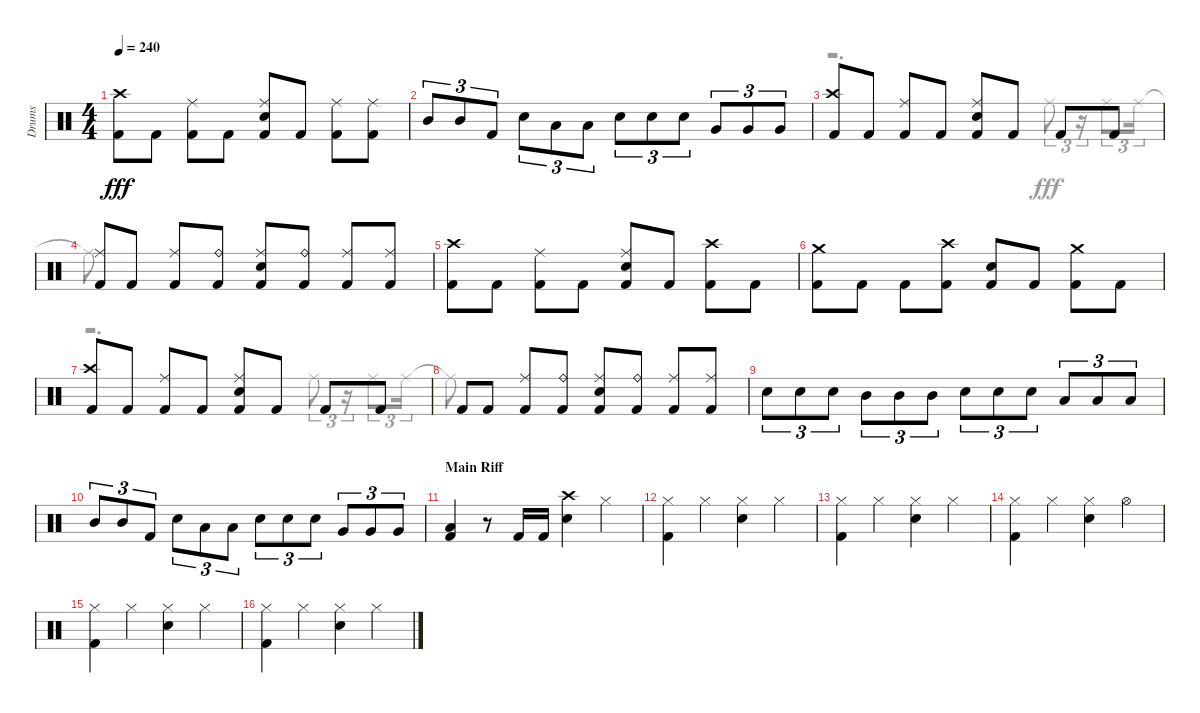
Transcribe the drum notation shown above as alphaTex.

\track ("Drums" "Drums") {instrument percussion}
\staff {score}
\articulation defaults
\voice
\ts (4 4)
\tempo 240
\clef neutral
\ks aminor
("Crash high (hit)" "Kick (hit) 2").8{dy fff} "Kick (hit) 2".8 ("Ride (middle)" "Kick (hit) 2").8 "Kick (hit) 2".8 ("Ride (middle)" "Snare (hit) 2" "Kick (hit) 2").8 "Kick (hit) 2".8 ("Kick (hit) 2" "Ride (middle)").8 ("Kick (hit) 2" "Ride (middle)").8 |
"Mid Tom (hit)".8{tu (3 2)} "Mid Tom (hit)".8{tu (3 2)} "Kick (hit) 2".8{tu (3 2)} "Snare (hit) 2".8{tu (3 2)} "Low Tom (hit)".8{tu (3 2)} "Low Tom (hit)".8{tu (3 2)} "Snare (hit) 2".8{tu (3 2)} "Snare (hit) 2".8{tu (3 2)} "Snare (hit) 2".8{tu (3 2)} "Very Low Tom (hit)".8{tu (3 2)} "Very Low Tom (hit)".8{tu (3 2)} "Very Low Tom (hit)".8{tu (3 2)} |
("Crash high (hit)" "Kick (hit) 2").8 "Kick (hit) 2".8 ("Ride (middle)" "Kick (hit) 2").8 "Kick (hit) 2".8 ("Ride (middle)" "Kick (hit) 2" "Snare (hit) 2").8 "Kick (hit) 2".8 "Kick (hit) 2".8 "Kick (hit) 2".8 |
("Kick (hit) 2" "Ride (middle)").8 "Kick (hit) 2".8 ("Kick (hit) 2" "Ride (middle)").8 ("Ride (bell)" "Kick (hit) 2").8 ("Ride (middle)" "Snare (hit) 2" "Kick (hit) 2").8 ("Kick (hit) 2" "Ride (bell)").8 ("Kick (hit) 2" "Ride (middle)").8 ("Kick (hit) 2" "Ride (middle)").8 |
("Crash high (hit)" "Kick (hit) 2").8 "Kick (hit) 2".8 ("Ride (middle)" "Kick (hit) 2").8 "Kick (hit) 2".8 ("Kick (hit) 2" "Ride (middle)" "Snare (hit) 2").8 "Kick (hit) 2".8 ("Kick (hit) 2" "Crash high (hit)").8 "Kick (hit) 2".8 |
("Kick (hit) 2" "Crash medium (hit)").8 "Kick (hit) 2".8 "Kick (hit) 2".8 ("Kick (hit) 2" "Crash high (hit)").8 ("Snare (hit) 2" "Kick (hit) 2").8 "Kick (hit) 2".8 ("Crash medium (hit)" "Kick (hit) 2").8 "Kick (hit) 2".8 |
("Crash high (hit)" "Kick (hit) 2").8 "Kick (hit) 2".8 ("Ride (middle)" "Kick (hit) 2").8 "Kick (hit) 2".8 ("Snare (hit) 2" "Ride (middle)" "Kick (hit) 2").8 "Kick (hit) 2".8 "Kick (hit) 2".8 "Kick (hit) 2".8 |
"Kick (hit) 2".8 "Kick (hit) 2".8 ("Ride (middle)" "Kick (hit) 2").8 ("Ride (bell)" "Kick (hit) 2").8 ("Kick (hit) 2" "Snare (hit) 2" "Ride (middle)").8 ("Kick (hit) 2" "Ride (bell)").8 ("Ride (middle)" "Kick (hit) 2").8 ("Ride (middle)" "Kick (hit) 2").8 |
"Snare (hit) 2".8{tu (3 2)} "Snare (hit) 2".8{tu (3 2)} "Snare (hit) 2".8{tu (3 2)} "Mid Tom (hit)".8{tu (3 2)} "Mid Tom (hit)".8{tu (3 2)} "Mid Tom (hit)".8{tu (3 2)} "Snare (hit) 2".8{tu (3 2)} "Snare (hit) 2".8{tu (3 2)} "Snare (hit) 2".8{tu (3 2)} "Low Tom (hit)".8{tu (3 2)} "Low Tom (hit)".8{tu (3 2)} "Low Tom (hit)".8{tu (3 2)} |
"Mid Tom (hit)".8{tu (3 2)} "Mid Tom (hit)".8{tu (3 2)} "Kick (hit) 2".8{tu (3 2)} "Snare (hit) 2".8{tu (3 2)} "Low Tom (hit)".8{tu (3 2)} "Low Tom (hit)".8{tu (3 2)} "Snare (hit) 2".8{tu (3 2)} "Snare (hit) 2".8{tu (3 2)} "Snare (hit) 2".8{tu (3 2)} "Very Low Tom (hit)".8{tu (3 2)} "Very Low Tom (hit)".8{tu (3 2)} "Very Low Tom (hit)".8{tu (3 2)} |
\section ("" "Main Riff")
("Kick (hit) 2" "Low Floor Tom (hit)").4 r.8 "Kick (hit) 2".16 "Kick (hit) 2".16 ("Crash high (hit)" "Snare (hit) 2").4 "Hi-Hat (closed)".4 |
("Kick (hit) 2" "Hi-Hat (closed)").4 "Hi-Hat (closed)".4 ("Hi-Hat (closed)" "Snare (hit) 2").4 "Hi-Hat (closed)".4 |
("Kick (hit) 2" "Hi-Hat (closed)").4 "Hi-Hat (closed)".4 ("Snare (hit) 2" "Hi-Hat (closed)").4 "Hi-Hat (closed)".4 |
("Hi-Hat (closed)" "Kick (hit) 2").4 "Hi-Hat (closed)".4 ("Hi-Hat (closed)" "Snare (hit) 2").4 "Hi-Hat (open)".4 |
("Kick (hit) 2" "Hi-Hat (closed)").4 "Hi-Hat (closed)".4 ("Hi-Hat (closed)" "Snare (hit) 2").4 "Hi-Hat (closed)".4 |
("Hi-Hat (closed)" "Kick (hit) 2").4 "Hi-Hat (closed)".4 ("Snare (hit) 2" "Hi-Hat (closed)").4 "Hi-Hat (closed)".4
\voice
\clef neutral
\ottava regular
\simile none
\ks aminor
|
|
r.2{d} "Ride (middle)".8{tu (3 2)} r.16{tu (3 2)} "Ride (middle)".8{tu (3 2)} "Ride (middle)".16{tu (3 2)} |
"Ride (middle)"{t}.8 |
|
|
r.2{d} "Ride (middle)".8{tu (3 2)} r.16{tu (3 2)} "Ride (middle)".8{tu (3 2)} "Ride (middle)".16{tu (3 2)} |
"Ride (middle)"{t}.8 |
|
|
|
|
|
|
|
